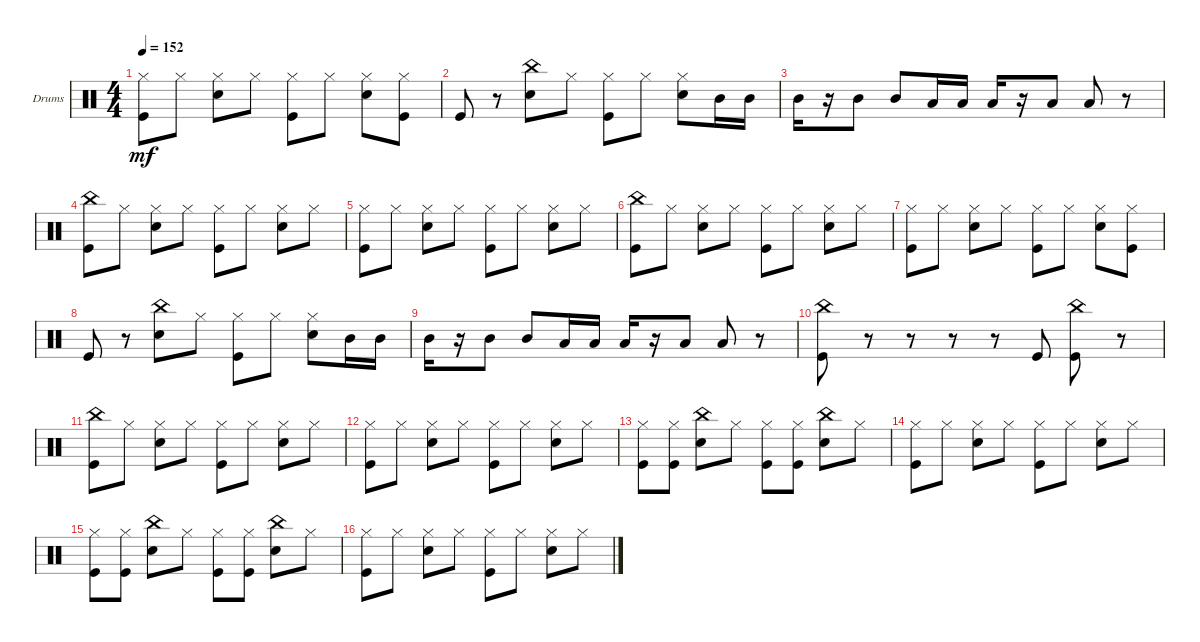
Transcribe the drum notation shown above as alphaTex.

\defaultSystemsLayout 4
\bracketExtendMode groupsimilarinstruments
\firstSystemTrackNameOrientation horizontal
\otherSystemsTrackNameOrientation horizontal
\track ("Drumkit" "Drums") {instrument percussion}
\staff {score}
\articulation defaults
\ts (4 4)
\tempo 152
\clef neutral
\ks c
("Kick (hit)" "Hi-Hat (closed)").8{dy mf} "Hi-Hat (closed)".8 ("Snare (hit) 2" "Hi-Hat (closed)").8 "Hi-Hat (closed)".8 ("Hi-Hat (closed)" "Kick (hit)").8 "Hi-Hat (closed)".8 ("Hi-Hat (closed)" "Snare (hit) 2").8 ("Hi-Hat (closed)" "Kick (hit)").8 |
"Kick (hit)".8 r.8 ("Snare (hit) 2" "China (hit)").8 "Hi-Hat (closed)".8 ("Hi-Hat (closed)" "Kick (hit)").8 "Hi-Hat (closed)".8 ("Snare (hit) 2" "Hi-Hat (closed)").8 "Mid Tom (hit)".16 "Mid Tom (hit)".16 |
"Mid Tom (hit)".16 r.16 "Mid Tom (hit)".8 "Mid Tom (hit)".8 "Low Tom (hit)".16 "Low Tom (hit)".16 "Low Tom (hit)".16 r.16 "Low Tom (hit)".8 "Low Tom (hit)".8 r.8 |
("China (hit)" "Kick (hit)").8 "Hi-Hat (closed)".8 ("Snare (hit) 2" "Hi-Hat (closed)").8 "Hi-Hat (closed)".8 ("Kick (hit)" "Hi-Hat (closed)").8 "Hi-Hat (closed)".8 ("Snare (hit) 2" "Hi-Hat (closed)").8 "Hi-Hat (closed)".8 |
("Kick (hit)" "Hi-Hat (closed)").8 "Hi-Hat (closed)".8 ("Snare (hit) 2" "Hi-Hat (closed)").8 "Hi-Hat (closed)".8 ("Hi-Hat (closed)" "Kick (hit)").8 "Hi-Hat (closed)".8 ("Hi-Hat (closed)" "Snare (hit) 2").8 "Hi-Hat (closed)".8 |
("Kick (hit)" "China (hit)").8 "Hi-Hat (closed)".8 ("Hi-Hat (closed)" "Snare (hit) 2").8 "Hi-Hat (closed)".8 ("Hi-Hat (closed)" "Kick (hit)").8 "Hi-Hat (closed)".8 ("Hi-Hat (closed)" "Snare (hit) 2").8 "Hi-Hat (closed)".8 |
("Kick (hit)" "Hi-Hat (closed)").8 "Hi-Hat (closed)".8 ("Snare (hit) 2" "Hi-Hat (closed)").8 "Hi-Hat (closed)".8 ("Hi-Hat (closed)" "Kick (hit)").8 "Hi-Hat (closed)".8 ("Hi-Hat (closed)" "Snare (hit) 2").8 ("Hi-Hat (closed)" "Kick (hit)").8 |
"Kick (hit)".8 r.8 ("Snare (hit) 2" "China (hit)").8 "Hi-Hat (closed)".8 ("Hi-Hat (closed)" "Kick (hit)").8 "Hi-Hat (closed)".8 ("Snare (hit) 2" "Hi-Hat (closed)").8 "Mid Tom (hit)".16 "Mid Tom (hit)".16 |
"Mid Tom (hit)".16 r.16 "Mid Tom (hit)".8 "Mid Tom (hit)".8 "Low Tom (hit)".16 "Low Tom (hit)".16 "Low Tom (hit)".16 r.16 "Low Tom (hit)".8 "Low Tom (hit)".8 r.8 |
("Kick (hit)" "China (hit)").8 r.8 r.8 r.8 r.8 "Kick (hit)".8 ("Kick (hit)" "China (hit)").8 r.8 |
("Kick (hit)" "China (hit)").8 "Hi-Hat (closed)".8 ("Hi-Hat (closed)" "Snare (hit) 2").8 "Hi-Hat (closed)".8 ("Hi-Hat (closed)" "Kick (hit)").8 "Hi-Hat (closed)".8 ("Hi-Hat (closed)" "Snare (hit) 2").8 "Hi-Hat (closed)".8 |
("Kick (hit)" "Hi-Hat (closed)").8 "Hi-Hat (closed)".8 ("Hi-Hat (closed)" "Snare (hit) 2").8 "Hi-Hat (closed)".8 ("Hi-Hat (closed)" "Kick (hit)").8 "Hi-Hat (closed)".8 ("Hi-Hat (closed)" "Snare (hit) 2").8 "Hi-Hat (closed)".8 |
("Kick (hit)" "Hi-Hat (closed)").8 ("Hi-Hat (closed)" "Kick (hit)").8 ("Snare (hit) 2" "China (hit)").8 "Hi-Hat (closed)".8 ("Hi-Hat (closed)" "Kick (hit)").8 ("Hi-Hat (closed)" "Kick (hit)").8 ("Snare (hit) 2" "China (hit)").8 "Hi-Hat (closed)".8 |
("Kick (hit)" "Hi-Hat (closed)").8 "Hi-Hat (closed)".8 ("Hi-Hat (closed)" "Snare (hit) 2").8 "Hi-Hat (closed)".8 ("Hi-Hat (closed)" "Kick (hit)").8 "Hi-Hat (closed)".8 ("Hi-Hat (closed)" "Snare (hit) 2").8 "Hi-Hat (closed)".8 |
("Kick (hit)" "Hi-Hat (closed)").8 ("Hi-Hat (closed)" "Kick (hit)").8 ("Snare (hit) 2" "China (hit)").8 "Hi-Hat (closed)".8 ("Hi-Hat (closed)" "Kick (hit)").8 ("Hi-Hat (closed)" "Kick (hit)").8 ("Snare (hit) 2" "China (hit)").8 "Hi-Hat (closed)".8 |
("Kick (hit)" "Hi-Hat (closed)").8 "Hi-Hat (closed)".8 ("Hi-Hat (closed)" "Snare (hit) 2").8 "Hi-Hat (closed)".8 ("Hi-Hat (closed)" "Kick (hit)").8 "Hi-Hat (closed)".8 ("Hi-Hat (closed)" "Snare (hit) 2").8 "Hi-Hat (closed)".8
